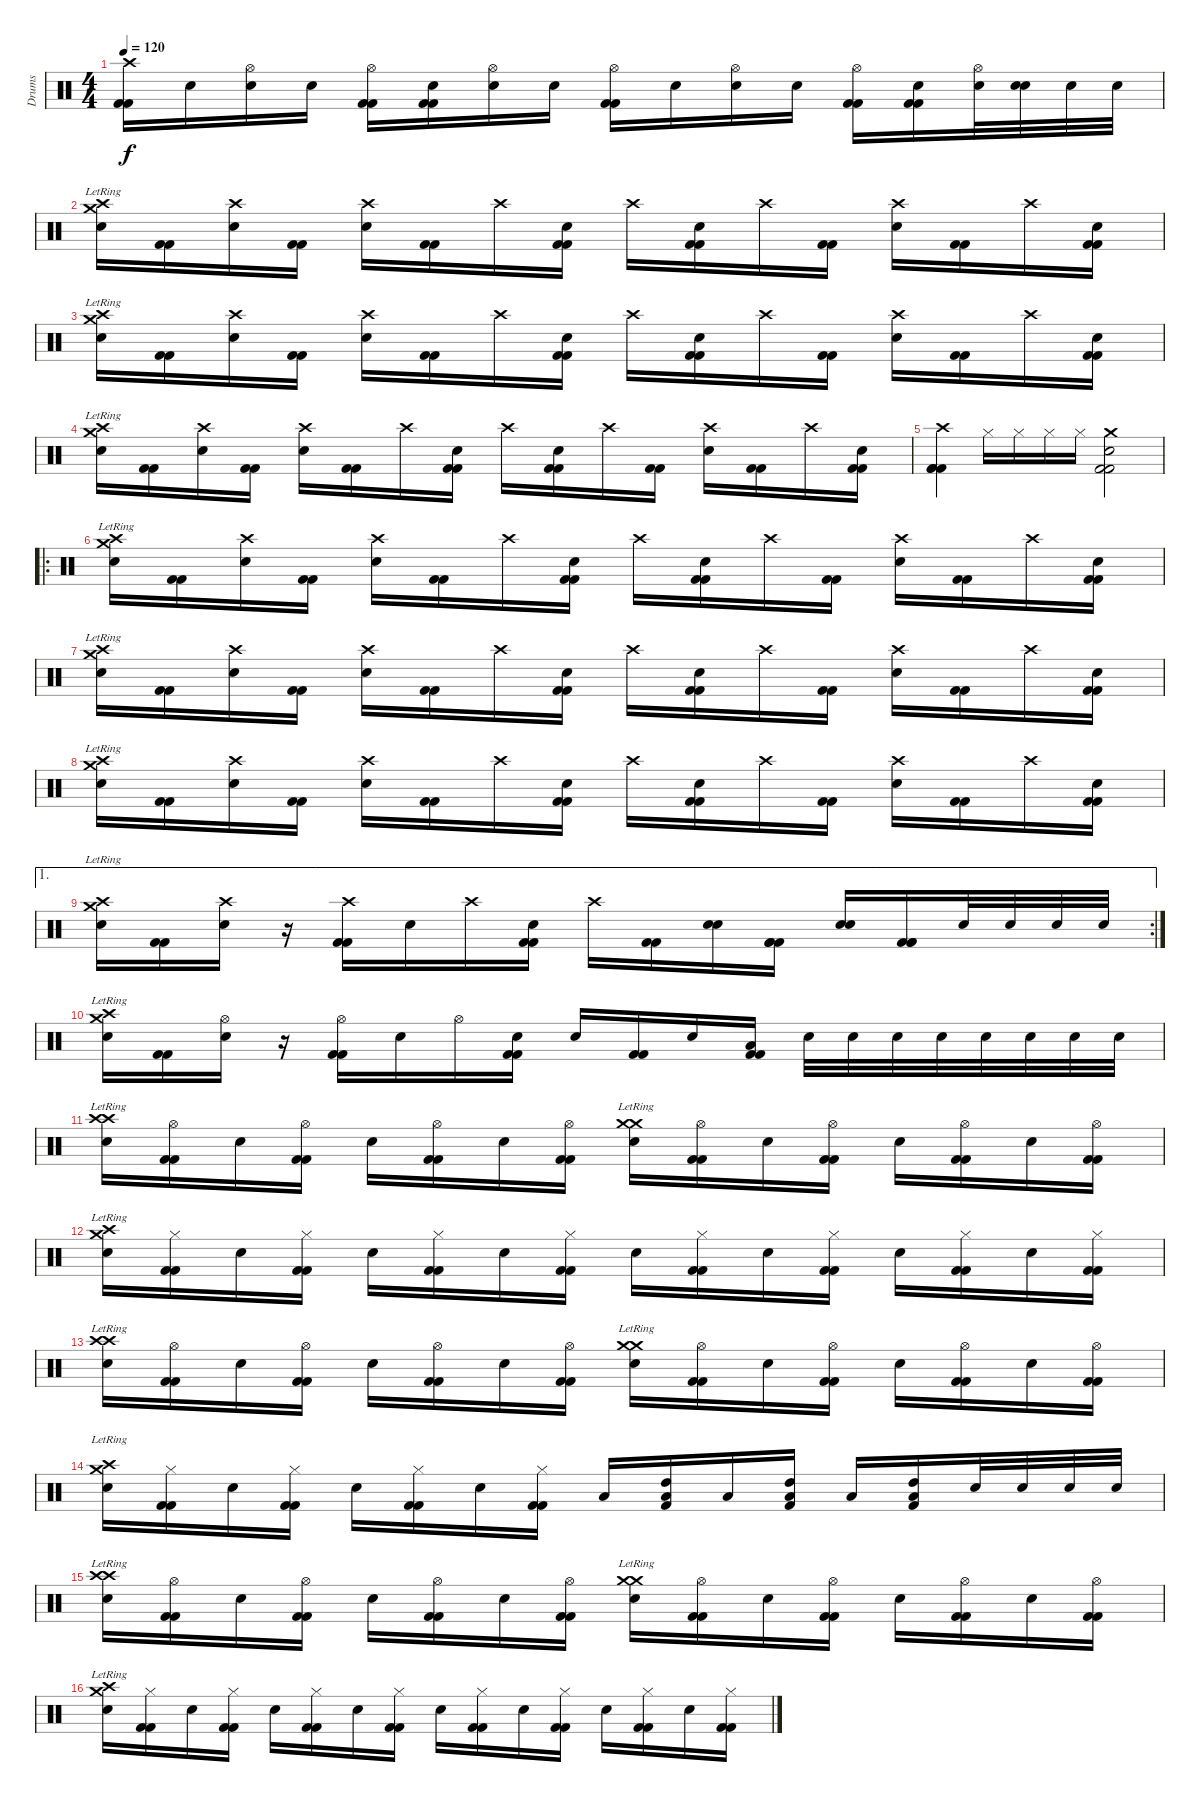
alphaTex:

\track ("Drums" "Drums") {instrument percussion}
\staff {score}
\articulation defaults
\ts (4 4)
\tempo 120
\clef neutral
\ks c
("Crash high (hit)" "Kick (hit) 2" "Kick (hit) 2").16{dy f} "Snare (hit)".16 ("Hi-Hat (open)" "Electric Snare (hit)").16 "Snare (hit)".16 ("Hi-Hat (open)" "Kick (hit) 2" "Kick (hit) 2").16 ("Snare (hit)" "Kick (hit) 2" "Kick (hit) 2").16 ("Hi-Hat (open)" "Electric Snare (hit)").16 "Snare (hit)".16 ("Hi-Hat (open)" "Kick (hit) 2" "Kick (hit) 2").16 "Snare (hit)".16 ("Hi-Hat (open)" "Electric Snare (hit)").16 "Snare (hit)".16 ("Hi-Hat (open)" "Kick (hit) 2" "Kick (hit) 2").16 ("Snare (hit)" "Kick (hit) 2" "Kick (hit) 2").16 ("Hi-Hat (open)" "Electric Snare (hit)").32 ("Snare (hit)" "Electric Snare (hit)").32 "Electric Snare (hit)".32 "Electric Snare (hit)".32 |
("Crash medium (hit)"{lr} "Crash high (hit)"{lr} "Electric Snare (hit)").16 ("Kick (hit) 2" "Kick (hit) 2").16 ("Crash high (hit)" "Electric Snare (hit)").16 ("Kick (hit) 2" "Kick (hit) 2").16 ("Crash high (hit)" "Electric Snare (hit)").16 ("Kick (hit) 2" "Kick (hit) 2").16 "Crash high (hit)".16 ("Electric Snare (hit)" "Kick (hit) 2" "Kick (hit) 2").16 "Crash high (hit)".16 ("Electric Snare (hit)" "Kick (hit) 2" "Kick (hit) 2").16 "Crash high (hit)".16 ("Kick (hit) 2" "Kick (hit) 2").16 ("Crash high (hit)" "Electric Snare (hit)").16 ("Kick (hit) 2" "Kick (hit) 2").16 "Crash high (hit)".16 ("Electric Snare (hit)" "Kick (hit) 2" "Kick (hit) 2").16 |
("Crash medium (hit)"{lr} "Crash high (hit)"{lr} "Electric Snare (hit)").16 ("Kick (hit) 2" "Kick (hit) 2").16 ("Crash high (hit)" "Electric Snare (hit)").16 ("Kick (hit) 2" "Kick (hit) 2").16 ("Crash high (hit)" "Electric Snare (hit)").16 ("Kick (hit) 2" "Kick (hit) 2").16 "Crash high (hit)".16 ("Electric Snare (hit)" "Kick (hit) 2" "Kick (hit) 2").16 "Crash high (hit)".16 ("Electric Snare (hit)" "Kick (hit) 2" "Kick (hit) 2").16 "Crash high (hit)".16 ("Kick (hit) 2" "Kick (hit) 2").16 ("Crash high (hit)" "Electric Snare (hit)").16 ("Kick (hit) 2" "Kick (hit) 2").16 "Crash high (hit)".16 ("Electric Snare (hit)" "Kick (hit) 2" "Kick (hit) 2").16 |
("Crash medium (hit)"{lr} "Crash high (hit)"{lr} "Electric Snare (hit)").16 ("Kick (hit) 2" "Kick (hit) 2").16 ("Crash high (hit)" "Electric Snare (hit)").16 ("Kick (hit) 2" "Kick (hit) 2").16 ("Crash high (hit)" "Electric Snare (hit)").16 ("Kick (hit) 2" "Kick (hit) 2").16 "Crash high (hit)".16 ("Electric Snare (hit)" "Kick (hit) 2" "Kick (hit) 2").16 "Crash high (hit)".16 ("Electric Snare (hit)" "Kick (hit) 2" "Kick (hit) 2").16 "Crash high (hit)".16 ("Kick (hit) 2" "Kick (hit) 2").16 ("Crash high (hit)" "Electric Snare (hit)").16 ("Kick (hit) 2" "Kick (hit) 2").16 "Crash high (hit)".16 ("Electric Snare (hit)" "Kick (hit) 2" "Kick (hit) 2").16 |
\section ("" "")
("Crash high (hit)" "Kick (hit) 2" "Kick (hit) 2" "Kick (hit) 2").4 "Hi-Hat (closed)".16 "Hi-Hat (closed)".16 "Hi-Hat (closed)".16 "Hi-Hat (closed)".16 ("Crash medium (hit)" "Kick (hit) 2" "Kick (hit) 2" "Snare (hit)").2 |
\ro
("Crash medium (hit)"{lr} "Crash high (hit)"{lr} "Electric Snare (hit)").16 ("Kick (hit) 2" "Kick (hit) 2").16 ("Crash high (hit)" "Electric Snare (hit)").16 ("Kick (hit) 2" "Kick (hit) 2").16 ("Crash high (hit)" "Electric Snare (hit)").16 ("Kick (hit) 2" "Kick (hit) 2").16 "Crash high (hit)".16 ("Electric Snare (hit)" "Kick (hit) 2" "Kick (hit) 2").16 "Crash high (hit)".16 ("Electric Snare (hit)" "Kick (hit) 2" "Kick (hit) 2").16 "Crash high (hit)".16 ("Kick (hit) 2" "Kick (hit) 2").16 ("Crash high (hit)" "Electric Snare (hit)").16 ("Kick (hit) 2" "Kick (hit) 2").16 "Crash high (hit)".16 ("Electric Snare (hit)" "Kick (hit) 2" "Kick (hit) 2").16 |
("Crash medium (hit)"{lr} "Crash high (hit)"{lr} "Electric Snare (hit)").16 ("Kick (hit) 2" "Kick (hit) 2").16 ("Crash high (hit)" "Electric Snare (hit)").16 ("Kick (hit) 2" "Kick (hit) 2").16 ("Crash high (hit)" "Electric Snare (hit)").16 ("Kick (hit) 2" "Kick (hit) 2").16 "Crash high (hit)".16 ("Electric Snare (hit)" "Kick (hit) 2" "Kick (hit) 2").16 "Crash high (hit)".16 ("Electric Snare (hit)" "Kick (hit) 2" "Kick (hit) 2").16 "Crash high (hit)".16 ("Kick (hit) 2" "Kick (hit) 2").16 ("Crash high (hit)" "Electric Snare (hit)").16 ("Kick (hit) 2" "Kick (hit) 2").16 "Crash high (hit)".16 ("Electric Snare (hit)" "Kick (hit) 2" "Kick (hit) 2").16 |
("Crash medium (hit)"{lr} "Crash high (hit)"{lr} "Electric Snare (hit)").16 ("Kick (hit) 2" "Kick (hit) 2").16 ("Crash high (hit)" "Electric Snare (hit)").16 ("Kick (hit) 2" "Kick (hit) 2").16 ("Crash high (hit)" "Electric Snare (hit)").16 ("Kick (hit) 2" "Kick (hit) 2").16 "Crash high (hit)".16 ("Electric Snare (hit)" "Kick (hit) 2" "Kick (hit) 2").16 "Crash high (hit)".16 ("Electric Snare (hit)" "Kick (hit) 2" "Kick (hit) 2").16 "Crash high (hit)".16 ("Kick (hit) 2" "Kick (hit) 2").16 ("Crash high (hit)" "Electric Snare (hit)").16 ("Kick (hit) 2" "Kick (hit) 2").16 "Crash high (hit)".16 ("Electric Snare (hit)" "Kick (hit) 2" "Kick (hit) 2").16 |
\ae 1
\rc 2
("Crash medium (hit)"{lr} "Crash high (hit)"{lr} "Electric Snare (hit)").16 ("Kick (hit) 2" "Kick (hit) 2").16 ("Crash high (hit)" "Electric Snare (hit)").16 r.16 ("Crash high (hit)" "Kick (hit) 2" "Kick (hit) 2").16 "Electric Snare (hit)".16 "Crash high (hit)".16 ("Electric Snare (hit)" "Kick (hit) 2" "Kick (hit) 2").16 "Crash high (hit)".16 ("Kick (hit) 2" "Kick (hit) 2").16 ("Electric Snare (hit)" "Electric Snare (hit)").16 ("Kick (hit) 2" "Kick (hit) 2" "Kick (hit) 2").16 ("Electric Snare (hit)" "Electric Snare (hit)").16 ("Kick (hit) 2" "Kick (hit) 2" "Kick (hit) 2").16 "Electric Snare (hit)".32 "Electric Snare (hit)".32 "Electric Snare (hit)".32 "Electric Snare (hit)".32 |
("Crash high (hit)"{lr} "Crash medium (hit)"{lr} "Electric Snare (hit)").16 ("Kick (hit) 2" "Kick (hit) 2").16 ("Hi-Hat (open)" "Electric Snare (hit)").16 r.16 ("Hi-Hat (open)" "Kick (hit) 2" "Kick (hit) 2").16 "Electric Snare (hit)".16 "Hi-Hat (open)".16 ("Electric Snare (hit)" "Kick (hit) 2" "Kick (hit) 2").16 "Electric Snare (hit)".16 ("Kick (hit) 2" "Kick (hit) 2").16 "Electric Snare (hit)".16 ("Low Tom (hit)" "Kick (hit) 2" "Kick (hit) 2").16 "Electric Snare (hit)".32 "Electric Snare (hit)".32 "Electric Snare (hit)".32 "Electric Snare (hit)".32 "Electric Snare (hit)".32 "Electric Snare (hit)".32 "Electric Snare (hit)".32 "Electric Snare (hit)".32 |
("Crash high (hit)"{lr} "Crash high (hit)"{lr} "Electric Snare (hit)").16 ("Hi-Hat (open)" "Kick (hit) 2" "Kick (hit) 2").16 "Electric Snare (hit)".16 ("Hi-Hat (open)" "Kick (hit) 2" "Kick (hit) 2").16 "Electric Snare (hit)".16 ("Hi-Hat (open)" "Kick (hit) 2" "Kick (hit) 2").16 "Electric Snare (hit)".16 ("Hi-Hat (open)" "Kick (hit) 2" "Kick (hit) 2").16 ("Crash medium (hit)"{lr} "Crash medium (hit)"{lr} "Electric Snare (hit)").16 ("Hi-Hat (open)" "Kick (hit) 2" "Kick (hit) 2").16 "Electric Snare (hit)".16 ("Hi-Hat (open)" "Kick (hit) 2" "Kick (hit) 2").16 "Electric Snare (hit)".16 ("Hi-Hat (open)" "Kick (hit) 2" "Kick (hit) 2").16 "Electric Snare (hit)".16 ("Hi-Hat (open)" "Kick (hit) 2" "Kick (hit) 2").16 |
("Crash medium (hit)"{lr} "Crash high (hit)"{lr} "Electric Snare (hit)").16 ("Hi-Hat (closed)" "Kick (hit) 2" "Kick (hit) 2").16 "Electric Snare (hit)".16 ("Hi-Hat (closed)" "Kick (hit) 2" "Kick (hit) 2").16 "Electric Snare (hit)".16 ("Hi-Hat (closed)" "Kick (hit) 2" "Kick (hit) 2").16 "Electric Snare (hit)".16 ("Hi-Hat (closed)" "Kick (hit) 2" "Kick (hit) 2").16 "Electric Snare (hit)".16 ("Hi-Hat (closed)" "Kick (hit) 2" "Kick (hit) 2").16 "Electric Snare (hit)".16 ("Hi-Hat (closed)" "Kick (hit) 2" "Kick (hit) 2").16 "Electric Snare (hit)".16 ("Hi-Hat (closed)" "Kick (hit) 2" "Kick (hit) 2").16 "Electric Snare (hit)".16 ("Hi-Hat (closed)" "Kick (hit) 2" "Kick (hit) 2").16 |
("Crash high (hit)"{lr} "Crash high (hit)"{lr} "Electric Snare (hit)").16 ("Hi-Hat (open)" "Kick (hit) 2" "Kick (hit) 2").16 "Electric Snare (hit)".16 ("Hi-Hat (open)" "Kick (hit) 2" "Kick (hit) 2").16 "Electric Snare (hit)".16 ("Hi-Hat (open)" "Kick (hit) 2" "Kick (hit) 2").16 "Electric Snare (hit)".16 ("Hi-Hat (open)" "Kick (hit) 2" "Kick (hit) 2").16 ("Crash medium (hit)"{lr} "Crash medium (hit)"{lr} "Electric Snare (hit)").16 ("Hi-Hat (open)" "Kick (hit) 2" "Kick (hit) 2").16 "Electric Snare (hit)".16 ("Hi-Hat (open)" "Kick (hit) 2" "Kick (hit) 2").16 "Electric Snare (hit)".16 ("Hi-Hat (open)" "Kick (hit) 2" "Kick (hit) 2").16 "Electric Snare (hit)".16 ("Hi-Hat (open)" "Kick (hit) 2" "Kick (hit) 2").16 |
("Crash medium (hit)"{lr} "Crash high (hit)"{lr} "Electric Snare (hit)").16 ("Hi-Hat (closed)" "Kick (hit) 2" "Kick (hit) 2").16 "Electric Snare (hit)".16 ("Hi-Hat (closed)" "Kick (hit) 2" "Kick (hit) 2").16 "Electric Snare (hit)".16 ("Hi-Hat (closed)" "Kick (hit) 2" "Kick (hit) 2").16 "Electric Snare (hit)".16 ("Hi-Hat (closed)" "Kick (hit) 2" "Kick (hit) 2").16 "Low Tom (hit)".16 ("Low Tom (hit)" "High Tom (hit)" "Kick (hit) 2").16 "Low Floor Tom (hit)".16 ("Low Floor Tom (hit)" "High Tom (hit)" "Kick (hit) 2").16 "Low Tom (hit)".16 ("Low Floor Tom (hit)" "High Tom (hit)" "Kick (hit) 2").16 "Electric Snare (hit)".32 "Electric Snare (hit)".32 "Electric Snare (hit)".32 "Electric Snare (hit)".32 |
("Crash high (hit)"{lr} "Crash high (hit)"{lr} "Electric Snare (hit)").16 ("Hi-Hat (open)" "Kick (hit) 2" "Kick (hit) 2").16 "Electric Snare (hit)".16 ("Hi-Hat (open)" "Kick (hit) 2" "Kick (hit) 2").16 "Electric Snare (hit)".16 ("Hi-Hat (open)" "Kick (hit) 2" "Kick (hit) 2").16 "Electric Snare (hit)".16 ("Hi-Hat (open)" "Kick (hit) 2" "Kick (hit) 2").16 ("Crash medium (hit)"{lr} "Crash medium (hit)"{lr} "Electric Snare (hit)").16 ("Hi-Hat (open)" "Kick (hit) 2" "Kick (hit) 2").16 "Electric Snare (hit)".16 ("Hi-Hat (open)" "Kick (hit) 2" "Kick (hit) 2").16 "Electric Snare (hit)".16 ("Hi-Hat (open)" "Kick (hit) 2" "Kick (hit) 2").16 "Electric Snare (hit)".16 ("Hi-Hat (open)" "Kick (hit) 2" "Kick (hit) 2").16 |
("Crash medium (hit)"{lr} "Crash high (hit)"{lr} "Electric Snare (hit)").16 ("Hi-Hat (closed)" "Kick (hit) 2" "Kick (hit) 2").16 "Electric Snare (hit)".16 ("Hi-Hat (closed)" "Kick (hit) 2" "Kick (hit) 2").16 "Electric Snare (hit)".16 ("Hi-Hat (closed)" "Kick (hit) 2" "Kick (hit) 2").16 "Electric Snare (hit)".16 ("Hi-Hat (closed)" "Kick (hit) 2" "Kick (hit) 2").16 "Electric Snare (hit)".16 ("Hi-Hat (closed)" "Kick (hit) 2" "Kick (hit) 2").16 "Electric Snare (hit)".16 ("Hi-Hat (closed)" "Kick (hit) 2" "Kick (hit) 2").16 "Electric Snare (hit)".16 ("Hi-Hat (closed)" "Kick (hit) 2" "Kick (hit) 2").16 "Electric Snare (hit)".16 ("Hi-Hat (closed)" "Kick (hit) 2" "Kick (hit) 2").16
